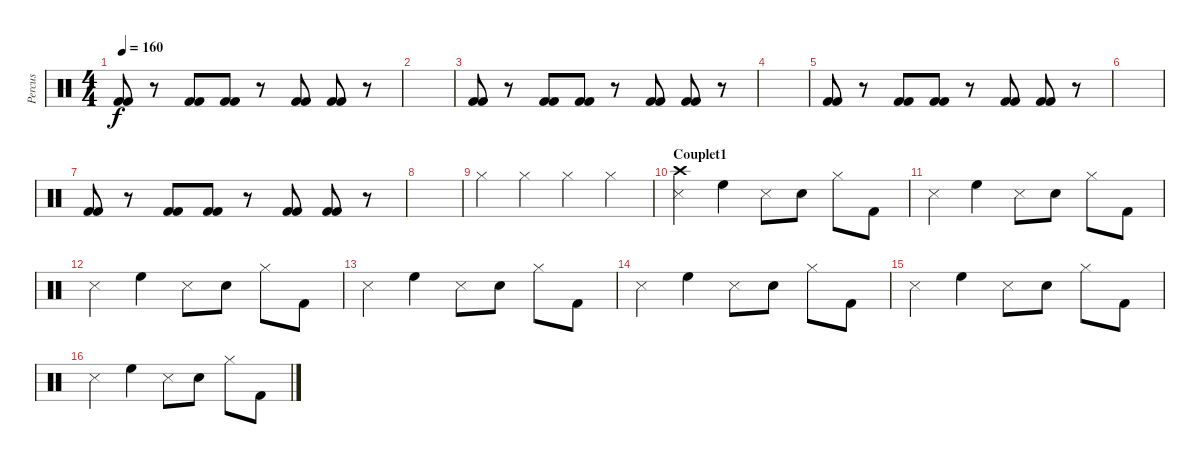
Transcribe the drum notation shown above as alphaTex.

\track ("Percus" "Percus") {instrument percussion}
\staff {score}
\articulation defaults
\ts (4 4)
\tempo 160
\clef neutral
\ks c
("Kick (hit) 2" "Kick (hit) 2").8{dy f} r.8 ("Kick (hit) 2" "Kick (hit) 2").8 ("Kick (hit) 2" "Kick (hit) 2").8 r.8 ("Kick (hit) 2" "Kick (hit) 2").8 ("Kick (hit) 2" "Kick (hit) 2").8 r.8 |
|
("Kick (hit) 2" "Kick (hit) 2").8 r.8 ("Kick (hit) 2" "Kick (hit) 2").8 ("Kick (hit) 2" "Kick (hit) 2").8 r.8 ("Kick (hit) 2" "Kick (hit) 2").8 ("Kick (hit) 2" "Kick (hit) 2").8 r.8 |
|
("Kick (hit) 2" "Kick (hit) 2").8 r.8 ("Kick (hit) 2" "Kick (hit) 2").8 ("Kick (hit) 2" "Kick (hit) 2").8 r.8 ("Kick (hit) 2" "Kick (hit) 2").8 ("Kick (hit) 2" "Kick (hit) 2").8 r.8 |
|
("Kick (hit) 2" "Kick (hit) 2").8 r.8 ("Kick (hit) 2" "Kick (hit) 2").8 ("Kick (hit) 2" "Kick (hit) 2").8 r.8 ("Kick (hit) 2" "Kick (hit) 2").8 ("Kick (hit) 2" "Kick (hit) 2").8 r.8 |
|
"Hi-Hat (closed)".4 "Hi-Hat (closed)".4 "Hi-Hat (closed)".4 "Hi-Hat (closed)".4 |
\section ("" "Couplet1")
("Crash high (hit)" "Snare (side stick) 3").4 "High Floor Tom (hit)".4 "Snare (side stick) 3".8 "Snare (hit) 2".8 "Hi-Hat (closed)".8 "Kick (hit) 2".8 |
"Snare (side stick) 3".4 "High Floor Tom (hit)".4 "Snare (side stick) 3".8 "Snare (hit) 2".8 "Hi-Hat (closed)".8 "Kick (hit) 2".8 |
"Snare (side stick) 3".4 "High Floor Tom (hit)".4 "Snare (side stick) 3".8 "Snare (hit) 2".8 "Hi-Hat (closed)".8 "Kick (hit) 2".8 |
"Snare (side stick) 3".4 "High Floor Tom (hit)".4 "Snare (side stick) 3".8 "Snare (hit) 2".8 "Hi-Hat (closed)".8 "Kick (hit) 2".8 |
"Snare (side stick) 3".4 "High Floor Tom (hit)".4 "Snare (side stick) 3".8 "Snare (hit) 2".8 "Hi-Hat (closed)".8 "Kick (hit) 2".8 |
"Snare (side stick) 3".4 "High Floor Tom (hit)".4 "Snare (side stick) 3".8 "Snare (hit) 2".8 "Hi-Hat (closed)".8 "Kick (hit) 2".8 |
"Snare (side stick) 3".4 "High Floor Tom (hit)".4 "Snare (side stick) 3".8 "Snare (hit) 2".8 "Hi-Hat (closed)".8 "Kick (hit) 2".8
